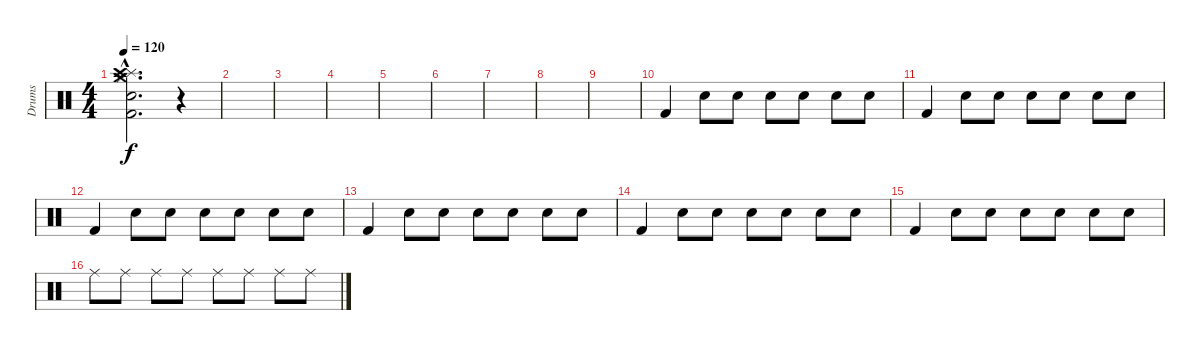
\track ("Drums" "Drums") {instrument percussion}
\staff {score}
\articulation defaults
\ts (4 4)
\tempo 120
\clef neutral
\ks c
("Crash medium (hit)"{hac} "Splash (hit)"{hac} "Crash high (hit)"{hac} "Hi-Hat (closed)"{hac} "Electric Snare (hit)"{hac} "Kick (hit) 2"{hac}).2{d dy f} r.4 |
|
|
|
|
|
|
|
|
"Kick (hit) 2".4 "Electric Snare (hit)".8 "Electric Snare (hit)".8 "Electric Snare (hit)".8 "Electric Snare (hit)".8 "Electric Snare (hit)".8 "Electric Snare (hit)".8 |
"Kick (hit) 2".4 "Electric Snare (hit)".8 "Electric Snare (hit)".8 "Electric Snare (hit)".8 "Electric Snare (hit)".8 "Electric Snare (hit)".8 "Electric Snare (hit)".8 |
"Kick (hit) 2".4 "Electric Snare (hit)".8 "Electric Snare (hit)".8 "Electric Snare (hit)".8 "Electric Snare (hit)".8 "Electric Snare (hit)".8 "Electric Snare (hit)".8 |
"Kick (hit) 2".4 "Electric Snare (hit)".8 "Electric Snare (hit)".8 "Electric Snare (hit)".8 "Electric Snare (hit)".8 "Electric Snare (hit)".8 "Electric Snare (hit)".8 |
"Kick (hit) 2".4 "Electric Snare (hit)".8 "Electric Snare (hit)".8 "Electric Snare (hit)".8 "Electric Snare (hit)".8 "Electric Snare (hit)".8 "Electric Snare (hit)".8 |
"Kick (hit) 2".4 "Electric Snare (hit)".8 "Electric Snare (hit)".8 "Electric Snare (hit)".8 "Electric Snare (hit)".8 "Electric Snare (hit)".8 "Electric Snare (hit)".8 |
"Ride (middle)".8 "Ride (middle)".8 "Ride (middle)".8 "Ride (middle)".8 "Ride (middle)".8 "Ride (middle)".8 "Ride (middle)".8 "Ride (middle)".8
